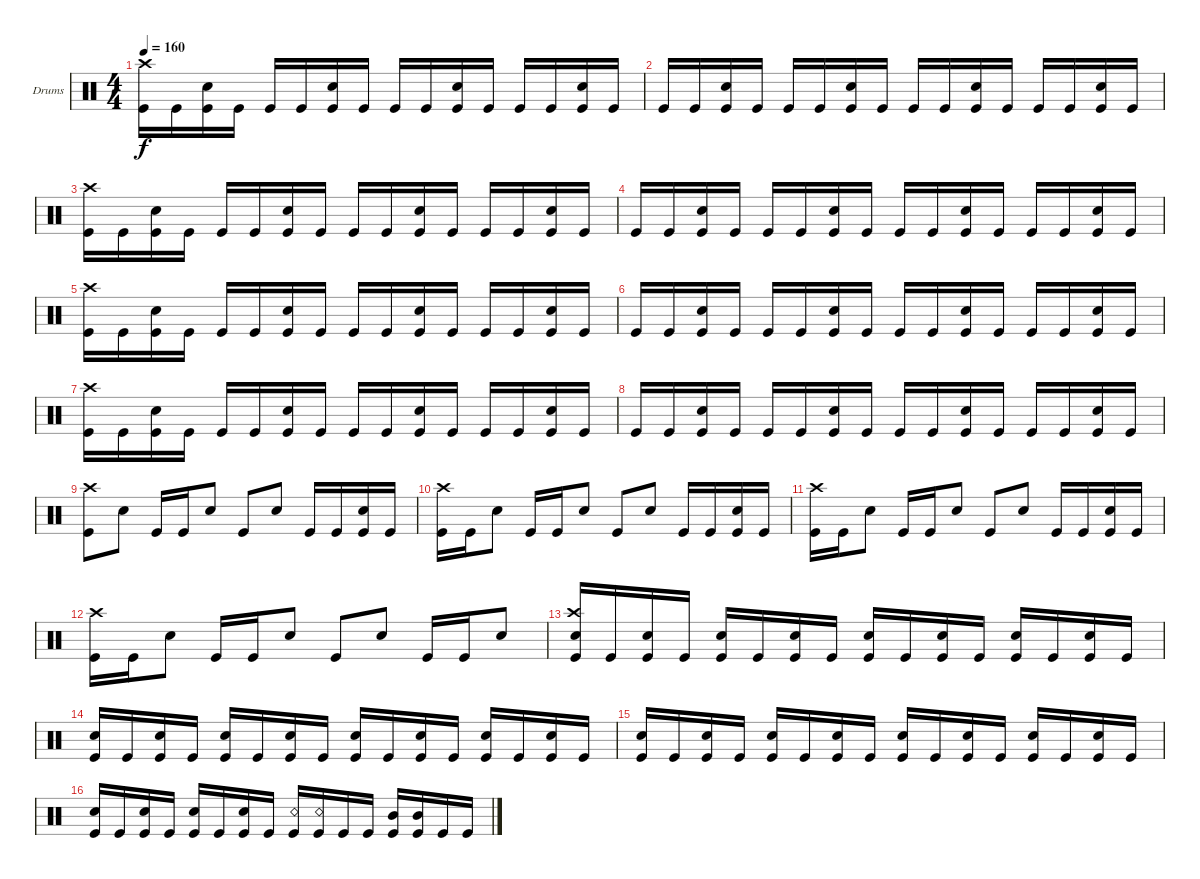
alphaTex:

\defaultSystemsLayout 4
\bracketExtendMode groupsimilarinstruments
\firstSystemTrackNameOrientation horizontal
\otherSystemsTrackNameOrientation horizontal
\track ("Drumkit" "Drums") {instrument percussion}
\staff {score}
\articulation defaults
\ts (4 4)
\tempo 160
\clef neutral
\ks c
("Kick (hit)" "Crash high (hit)").16{dy f} "Kick (hit)".16 ("Kick (hit)" "Snare (hit) 2").16 "Kick (hit)".16 "Kick (hit)".16 "Kick (hit)".16 ("Kick (hit)" "Snare (hit) 2").16 "Kick (hit)".16 "Kick (hit)".16 "Kick (hit)".16 ("Kick (hit)" "Snare (hit) 2").16 "Kick (hit)".16 "Kick (hit)".16 "Kick (hit)".16 ("Kick (hit)" "Snare (hit) 2").16 "Kick (hit)".16 |
"Kick (hit)".16 "Kick (hit)".16 ("Kick (hit)" "Snare (hit) 2").16 "Kick (hit)".16 "Kick (hit)".16 "Kick (hit)".16 ("Kick (hit)" "Snare (hit) 2").16 "Kick (hit)".16 "Kick (hit)".16 "Kick (hit)".16 ("Kick (hit)" "Snare (hit) 2").16 "Kick (hit)".16 "Kick (hit)".16 "Kick (hit)".16 ("Kick (hit)" "Snare (hit) 2").16 "Kick (hit)".16 |
("Kick (hit)" "Crash high (hit)").16 "Kick (hit)".16 ("Kick (hit)" "Snare (hit) 2").16 "Kick (hit)".16 "Kick (hit)".16 "Kick (hit)".16 ("Kick (hit)" "Snare (hit) 2").16 "Kick (hit)".16 "Kick (hit)".16 "Kick (hit)".16 ("Kick (hit)" "Snare (hit) 2").16 "Kick (hit)".16 "Kick (hit)".16 "Kick (hit)".16 ("Kick (hit)" "Snare (hit) 2").16 "Kick (hit)".16 |
"Kick (hit)".16 "Kick (hit)".16 ("Kick (hit)" "Snare (hit) 2").16 "Kick (hit)".16 "Kick (hit)".16 "Kick (hit)".16 ("Kick (hit)" "Snare (hit) 2").16 "Kick (hit)".16 "Kick (hit)".16 "Kick (hit)".16 ("Kick (hit)" "Snare (hit) 2").16 "Kick (hit)".16 "Kick (hit)".16 "Kick (hit)".16 ("Kick (hit)" "Snare (hit) 2").16 "Kick (hit)".16 |
("Kick (hit)" "Crash high (hit)").16 "Kick (hit)".16 ("Kick (hit)" "Snare (hit) 2").16 "Kick (hit)".16 "Kick (hit)".16 "Kick (hit)".16 ("Kick (hit)" "Snare (hit) 2").16 "Kick (hit)".16 "Kick (hit)".16 "Kick (hit)".16 ("Kick (hit)" "Snare (hit) 2").16 "Kick (hit)".16 "Kick (hit)".16 "Kick (hit)".16 ("Kick (hit)" "Snare (hit) 2").16 "Kick (hit)".16 |
"Kick (hit)".16 "Kick (hit)".16 ("Kick (hit)" "Snare (hit) 2").16 "Kick (hit)".16 "Kick (hit)".16 "Kick (hit)".16 ("Kick (hit)" "Snare (hit) 2").16 "Kick (hit)".16 "Kick (hit)".16 "Kick (hit)".16 ("Kick (hit)" "Snare (hit) 2").16 "Kick (hit)".16 "Kick (hit)".16 "Kick (hit)".16 ("Kick (hit)" "Snare (hit) 2").16 "Kick (hit)".16 |
("Kick (hit)" "Crash high (hit)").16 "Kick (hit)".16 ("Kick (hit)" "Snare (hit) 2").16 "Kick (hit)".16 "Kick (hit)".16 "Kick (hit)".16 ("Kick (hit)" "Snare (hit) 2").16 "Kick (hit)".16 "Kick (hit)".16 "Kick (hit)".16 ("Kick (hit)" "Snare (hit) 2").16 "Kick (hit)".16 "Kick (hit)".16 "Kick (hit)".16 ("Kick (hit)" "Snare (hit) 2").16 "Kick (hit)".16 |
"Kick (hit)".16 "Kick (hit)".16 ("Kick (hit)" "Snare (hit) 2").16 "Kick (hit)".16 "Kick (hit)".16 "Kick (hit)".16 ("Kick (hit)" "Snare (hit) 2").16 "Kick (hit)".16 "Kick (hit)".16 "Kick (hit)".16 ("Kick (hit)" "Snare (hit) 2").16 "Kick (hit)".16 "Kick (hit)".16 "Kick (hit)".16 ("Kick (hit)" "Snare (hit) 2").16 "Kick (hit)".16 |
("Kick (hit)" "Crash high (hit)").8 "Snare (hit) 2".8 "Kick (hit)".16 "Kick (hit)".16 "Snare (hit) 2".8 "Kick (hit)".8 "Snare (hit) 2".8 "Kick (hit)".16 "Kick (hit)".16 ("Kick (hit)" "Snare (hit) 2").16 "Kick (hit)".16 |
("Kick (hit)" "Crash high (hit)").16 "Kick (hit)".16 "Snare (hit) 2".8 "Kick (hit)".16 "Kick (hit)".16 "Snare (hit) 2".8 "Kick (hit)".8 "Snare (hit) 2".8 "Kick (hit)".16 "Kick (hit)".16 ("Kick (hit)" "Snare (hit) 2").16 "Kick (hit)".16 |
("Kick (hit)" "Crash high (hit)").16 "Kick (hit)".16 "Snare (hit) 2".8 "Kick (hit)".16 "Kick (hit)".16 "Snare (hit) 2".8 "Kick (hit)".8 "Snare (hit) 2".8 "Kick (hit)".16 "Kick (hit)".16 ("Snare (hit) 2" "Kick (hit)").16 "Kick (hit)".16 |
("Kick (hit)" "Crash high (hit)").16 "Kick (hit)".16 "Snare (hit) 2".8 "Kick (hit)".16 "Kick (hit)".16 "Snare (hit) 2".8 "Kick (hit)".8 "Snare (hit) 2".8 "Kick (hit)".16 "Kick (hit)".16 "Snare (hit) 2".8 |
("Snare (hit) 2" "Crash high (hit)" "Kick (hit)").16 "Kick (hit)".16 ("Snare (hit) 2" "Kick (hit)").16 "Kick (hit)".16 ("Snare (hit) 2" "Kick (hit)").16 "Kick (hit)".16 ("Snare (hit) 2" "Kick (hit)").16 "Kick (hit)".16 ("Snare (hit) 2" "Kick (hit)").16 "Kick (hit)".16 ("Snare (hit) 2" "Kick (hit)").16 "Kick (hit)".16 ("Snare (hit) 2" "Kick (hit)").16 "Kick (hit)".16 ("Snare (hit) 2" "Kick (hit)").16 "Kick (hit)".16 |
("Snare (hit) 2" "Kick (hit)").16 "Kick (hit)".16 ("Snare (hit) 2" "Kick (hit)").16 "Kick (hit)".16 ("Snare (hit) 2" "Kick (hit)").16 "Kick (hit)".16 ("Snare (hit) 2" "Kick (hit)").16 "Kick (hit)".16 ("Snare (hit) 2" "Kick (hit)").16 "Kick (hit)".16 ("Snare (hit) 2" "Kick (hit)").16 "Kick (hit)".16 ("Snare (hit) 2" "Kick (hit)").16 "Kick (hit)".16 ("Snare (hit) 2" "Kick (hit)").16 "Kick (hit)".16 |
("Snare (hit) 2" "Kick (hit)").16 "Kick (hit)".16 ("Snare (hit) 2" "Kick (hit)").16 "Kick (hit)".16 ("Snare (hit) 2" "Kick (hit)").16 "Kick (hit)".16 ("Snare (hit) 2" "Kick (hit)").16 "Kick (hit)".16 ("Snare (hit) 2" "Kick (hit)").16 "Kick (hit)".16 ("Snare (hit) 2" "Kick (hit)").16 "Kick (hit)".16 ("Snare (hit) 2" "Kick (hit)").16 "Kick (hit)".16 ("Snare (hit) 2" "Kick (hit)").16 "Kick (hit)".16 |
("Snare (hit) 2" "Kick (hit)").16 "Kick (hit)".16 ("Snare (hit) 2" "Kick (hit)").16 "Kick (hit)".16 ("Snare (hit) 2" "Kick (hit)").16 "Kick (hit)".16 ("Snare (hit) 2" "Kick (hit)").16 "Kick (hit)".16 ("Kick (hit)" "Snare (rim shot)").16 ("Kick (hit)" "Snare (rim shot)").16 "Kick (hit)".16 "Kick (hit)".16 ("Kick (hit)" "Mid Tom (hit)").16 ("Kick (hit)" "Mid Tom (hit)").16 "Kick (hit)".16 "Kick (hit)".16
